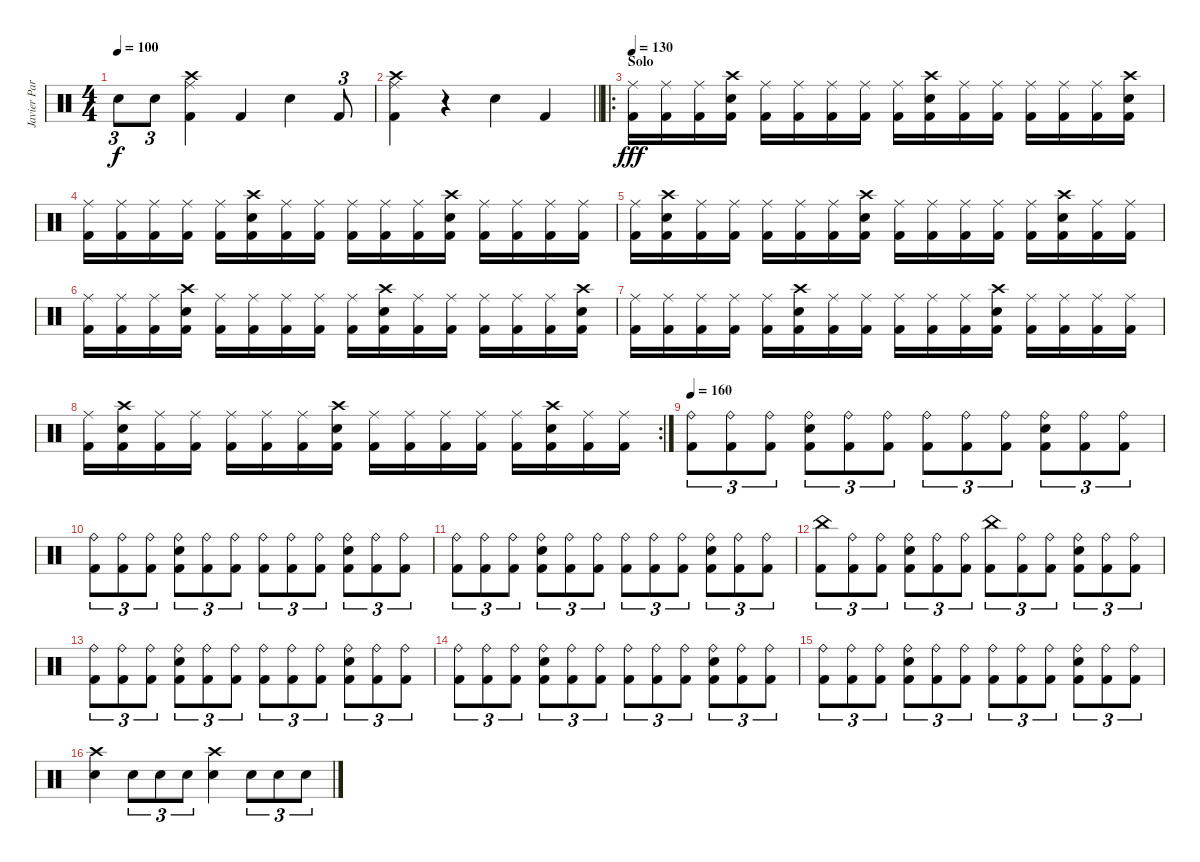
\track ("Javier Partida" "Javier Par") {instrument percussion}
\staff {score}
\articulation defaults
\ts (4 4)
\tempo 100
\clef neutral
\ks c "Snare (hit) 2".8{tu (3 2) dy f} "Electric Snare (hit)".8{tu (3 2)}
("Crash high (hit)" "Ride (middle)" "Kick (hit) 2").4 "Kick (hit) 2".4 "Electric Snare (hit)".4 "Kick (hit) 2".8{tu (3 2)} |
\barLineRight lightlight
("Crash high (hit)" "Ride (middle)" "Kick (hit) 2").4 r.4 "Electric Snare (hit)".4 "Kick (hit) 2".4 |
\ro
\section ("" "Solo")
\tempo 130
("Ride (middle)" "Kick (hit) 2").16{dy fff} ("Ride (middle)" "Kick (hit) 2").16 ("Ride (middle)" "Kick (hit) 2").16 ("Crash high (hit)" "Electric Snare (hit)" "Kick (hit) 2").16 ("Ride (middle)" "Kick (hit) 2").16 ("Ride (middle)" "Kick (hit) 2").16 ("Ride (middle)" "Kick (hit) 2").16 ("Ride (middle)" "Kick (hit) 2").16 ("Ride (middle)" "Kick (hit) 2").16 ("Crash high (hit)" "Electric Snare (hit)" "Kick (hit) 2").16 ("Ride (middle)" "Kick (hit) 2").16 ("Ride (middle)" "Kick (hit) 2").16 ("Ride (middle)" "Kick (hit) 2").16 ("Ride (middle)" "Kick (hit) 2").16 ("Ride (middle)" "Kick (hit) 2").16 ("Crash high (hit)" "Electric Snare (hit)" "Kick (hit) 2").16 |
("Ride (middle)" "Kick (hit) 2").16 ("Ride (middle)" "Kick (hit) 2").16 ("Ride (middle)" "Kick (hit) 2").16 ("Ride (middle)" "Kick (hit) 2").16 ("Ride (middle)" "Kick (hit) 2").16 ("Crash high (hit)" "Electric Snare (hit)" "Kick (hit) 2").16 ("Ride (middle)" "Kick (hit) 2").16 ("Ride (middle)" "Kick (hit) 2").16 ("Ride (middle)" "Kick (hit) 2").16 ("Ride (middle)" "Kick (hit) 2").16 ("Ride (middle)" "Kick (hit) 2").16 ("Crash high (hit)" "Electric Snare (hit)" "Kick (hit) 2").16 ("Ride (middle)" "Kick (hit) 2").16 ("Ride (middle)" "Kick (hit) 2").16 ("Ride (middle)" "Kick (hit) 2").16 ("Ride (middle)" "Kick (hit) 2").16 |
("Ride (middle)" "Kick (hit) 2").16 ("Crash high (hit)" "Electric Snare (hit)" "Kick (hit) 2").16 ("Ride (middle)" "Kick (hit) 2").16 ("Ride (middle)" "Kick (hit) 2").16 ("Ride (middle)" "Kick (hit) 2").16 ("Ride (middle)" "Kick (hit) 2").16 ("Ride (middle)" "Kick (hit) 2").16 ("Crash high (hit)" "Electric Snare (hit)" "Kick (hit) 2").16 ("Ride (middle)" "Kick (hit) 2").16 ("Ride (middle)" "Kick (hit) 2").16 ("Ride (middle)" "Kick (hit) 2").16 ("Ride (middle)" "Kick (hit) 2").16 ("Ride (middle)" "Kick (hit) 2").16 ("Crash high (hit)" "Electric Snare (hit)" "Kick (hit) 2").16 ("Ride (middle)" "Kick (hit) 2").16 ("Ride (middle)" "Kick (hit) 2").16 |
("Ride (middle)" "Kick (hit) 2").16 ("Ride (middle)" "Kick (hit) 2").16 ("Ride (middle)" "Kick (hit) 2").16 ("Crash high (hit)" "Electric Snare (hit)" "Kick (hit) 2").16 ("Ride (middle)" "Kick (hit) 2").16 ("Ride (middle)" "Kick (hit) 2").16 ("Ride (middle)" "Kick (hit) 2").16 ("Ride (middle)" "Kick (hit) 2").16 ("Ride (middle)" "Kick (hit) 2").16 ("Crash high (hit)" "Electric Snare (hit)" "Kick (hit) 2").16 ("Ride (middle)" "Kick (hit) 2").16 ("Ride (middle)" "Kick (hit) 2").16 ("Ride (middle)" "Kick (hit) 2").16 ("Ride (middle)" "Kick (hit) 2").16 ("Ride (middle)" "Kick (hit) 2").16 ("Crash high (hit)" "Electric Snare (hit)" "Kick (hit) 2").16 |
("Ride (middle)" "Kick (hit) 2").16 ("Ride (middle)" "Kick (hit) 2").16 ("Ride (middle)" "Kick (hit) 2").16 ("Ride (middle)" "Kick (hit) 2").16 ("Ride (middle)" "Kick (hit) 2").16 ("Crash high (hit)" "Electric Snare (hit)" "Kick (hit) 2").16 ("Ride (middle)" "Kick (hit) 2").16 ("Ride (middle)" "Kick (hit) 2").16 ("Ride (middle)" "Kick (hit) 2").16 ("Ride (middle)" "Kick (hit) 2").16 ("Ride (middle)" "Kick (hit) 2").16 ("Crash high (hit)" "Electric Snare (hit)" "Kick (hit) 2").16 ("Ride (middle)" "Kick (hit) 2").16 ("Ride (middle)" "Kick (hit) 2").16 ("Ride (middle)" "Kick (hit) 2").16 ("Ride (middle)" "Kick (hit) 2").16 |
\rc 2
("Ride (middle)" "Kick (hit) 2").16 ("Crash high (hit)" "Electric Snare (hit)" "Kick (hit) 2").16 ("Ride (middle)" "Kick (hit) 2").16 ("Ride (middle)" "Kick (hit) 2").16 ("Ride (middle)" "Kick (hit) 2").16 ("Ride (middle)" "Kick (hit) 2").16 ("Ride (middle)" "Kick (hit) 2").16 ("Crash high (hit)" "Electric Snare (hit)" "Kick (hit) 2").16 ("Ride (middle)" "Kick (hit) 2").16 ("Ride (middle)" "Kick (hit) 2").16 ("Ride (middle)" "Kick (hit) 2").16 ("Ride (middle)" "Kick (hit) 2").16 ("Ride (middle)" "Kick (hit) 2").16 ("Crash high (hit)" "Electric Snare (hit)" "Kick (hit) 2").16 ("Ride (middle)" "Kick (hit) 2").16 ("Ride (middle)" "Kick (hit) 2").16 |
\tempo 160
("Ride (bell)" "Kick (hit) 2").8{tu (3 2)} ("Ride (bell)" "Kick (hit) 2").8{tu (3 2)} ("Ride (bell)" "Kick (hit) 2").8{tu (3 2)} ("Ride (bell)" "Electric Snare (hit)" "Kick (hit) 2").8{tu (3 2)} ("Ride (bell)" "Kick (hit) 2").8{tu (3 2)} ("Ride (bell)" "Kick (hit) 2").8{tu (3 2)} ("Ride (bell)" "Kick (hit) 2").8{tu (3 2)} ("Ride (bell)" "Kick (hit) 2").8{tu (3 2)} ("Ride (bell)" "Kick (hit) 2").8{tu (3 2)} ("Ride (bell)" "Electric Snare (hit)" "Kick (hit) 2").8{tu (3 2)} ("Ride (bell)" "Kick (hit) 2").8{tu (3 2)} ("Ride (bell)" "Kick (hit) 2").8{tu (3 2)} |
("Ride (bell)" "Kick (hit) 2").8{tu (3 2)} ("Ride (bell)" "Kick (hit) 2").8{tu (3 2)} ("Ride (bell)" "Kick (hit) 2").8{tu (3 2)} ("Ride (bell)" "Electric Snare (hit)" "Kick (hit) 2").8{tu (3 2)} ("Ride (bell)" "Kick (hit) 2").8{tu (3 2)} ("Ride (bell)" "Kick (hit) 2").8{tu (3 2)} ("Ride (bell)" "Kick (hit) 2").8{tu (3 2)} ("Ride (bell)" "Kick (hit) 2").8{tu (3 2)} ("Ride (bell)" "Kick (hit) 2").8{tu (3 2)} ("Ride (bell)" "Electric Snare (hit)" "Kick (hit) 2").8{tu (3 2)} ("Ride (bell)" "Kick (hit) 2").8{tu (3 2)} ("Ride (bell)" "Kick (hit) 2").8{tu (3 2)} |
("Ride (bell)" "Kick (hit) 2").8{tu (3 2)} ("Ride (bell)" "Kick (hit) 2").8{tu (3 2)} ("Ride (bell)" "Kick (hit) 2").8{tu (3 2)} ("Ride (bell)" "Electric Snare (hit)" "Kick (hit) 2").8{tu (3 2)} ("Ride (bell)" "Kick (hit) 2").8{tu (3 2)} ("Ride (bell)" "Kick (hit) 2").8{tu (3 2)} ("Ride (bell)" "Kick (hit) 2").8{tu (3 2)} ("Ride (bell)" "Kick (hit) 2").8{tu (3 2)} ("Ride (bell)" "Kick (hit) 2").8{tu (3 2)} ("Ride (bell)" "Electric Snare (hit)" "Kick (hit) 2").8{tu (3 2)} ("Ride (bell)" "Kick (hit) 2").8{tu (3 2)} ("Ride (bell)" "Kick (hit) 2").8{tu (3 2)} |
("China (hit)" "Kick (hit) 2").8{tu (3 2)} ("Ride (bell)" "Kick (hit) 2").8{tu (3 2)} ("Ride (bell)" "Kick (hit) 2").8{tu (3 2)} ("Ride (bell)" "Electric Snare (hit)" "Kick (hit) 2").8{tu (3 2)} ("Ride (bell)" "Kick (hit) 2").8{tu (3 2)} ("Ride (bell)" "Kick (hit) 2").8{tu (3 2)} ("China (hit)" "Kick (hit) 2").8{tu (3 2)} ("Ride (bell)" "Kick (hit) 2").8{tu (3 2)} ("Ride (bell)" "Kick (hit) 2").8{tu (3 2)} ("Ride (bell)" "Electric Snare (hit)" "Kick (hit) 2").8{tu (3 2)} ("Ride (bell)" "Kick (hit) 2").8{tu (3 2)} ("Ride (bell)" "Kick (hit) 2").8{tu (3 2)} |
("Ride (bell)" "Kick (hit) 2").8{tu (3 2)} ("Ride (bell)" "Kick (hit) 2").8{tu (3 2)} ("Ride (bell)" "Kick (hit) 2").8{tu (3 2)} ("Ride (bell)" "Electric Snare (hit)" "Kick (hit) 2").8{tu (3 2)} ("Ride (bell)" "Kick (hit) 2").8{tu (3 2)} ("Ride (bell)" "Kick (hit) 2").8{tu (3 2)} ("Ride (bell)" "Kick (hit) 2").8{tu (3 2)} ("Ride (bell)" "Kick (hit) 2").8{tu (3 2)} ("Ride (bell)" "Kick (hit) 2").8{tu (3 2)} ("Ride (bell)" "Electric Snare (hit)" "Kick (hit) 2").8{tu (3 2)} ("Ride (bell)" "Kick (hit) 2").8{tu (3 2)} ("Ride (bell)" "Kick (hit) 2").8{tu (3 2)} |
("Ride (bell)" "Kick (hit) 2").8{tu (3 2)} ("Ride (bell)" "Kick (hit) 2").8{tu (3 2)} ("Ride (bell)" "Kick (hit) 2").8{tu (3 2)} ("Ride (bell)" "Electric Snare (hit)" "Kick (hit) 2").8{tu (3 2)} ("Ride (bell)" "Kick (hit) 2").8{tu (3 2)} ("Ride (bell)" "Kick (hit) 2").8{tu (3 2)} ("Ride (bell)" "Kick (hit) 2").8{tu (3 2)} ("Ride (bell)" "Kick (hit) 2").8{tu (3 2)} ("Ride (bell)" "Kick (hit) 2").8{tu (3 2)} ("Ride (bell)" "Electric Snare (hit)" "Kick (hit) 2").8{tu (3 2)} ("Ride (bell)" "Kick (hit) 2").8{tu (3 2)} ("Ride (bell)" "Kick (hit) 2").8{tu (3 2)} |
("Ride (bell)" "Kick (hit) 2").8{tu (3 2)} ("Ride (bell)" "Kick (hit) 2").8{tu (3 2)} ("Ride (bell)" "Kick (hit) 2").8{tu (3 2)} ("Ride (bell)" "Electric Snare (hit)" "Kick (hit) 2").8{tu (3 2)} ("Ride (bell)" "Kick (hit) 2").8{tu (3 2)} ("Ride (bell)" "Kick (hit) 2").8{tu (3 2)} ("Ride (bell)" "Kick (hit) 2").8{tu (3 2)} ("Ride (bell)" "Kick (hit) 2").8{tu (3 2)} ("Ride (bell)" "Kick (hit) 2").8{tu (3 2)} ("Ride (bell)" "Electric Snare (hit)" "Kick (hit) 2").8{tu (3 2)} ("Ride (bell)" "Kick (hit) 2").8{tu (3 2)} ("Ride (bell)" "Kick (hit) 2").8{tu (3 2)} |
("Snare (hit) 2" "Crash high (hit)").4 "Snare (hit) 2".8{tu (3 2)} "Snare (hit) 2".8{tu (3 2)} "Snare (hit) 2".8{tu (3 2)} ("Snare (hit) 2" "Crash high (hit)").4 "Snare (hit) 2".8{tu (3 2)} "Snare (hit) 2".8{tu (3 2)} "Snare (hit) 2".8{tu (3 2)}
